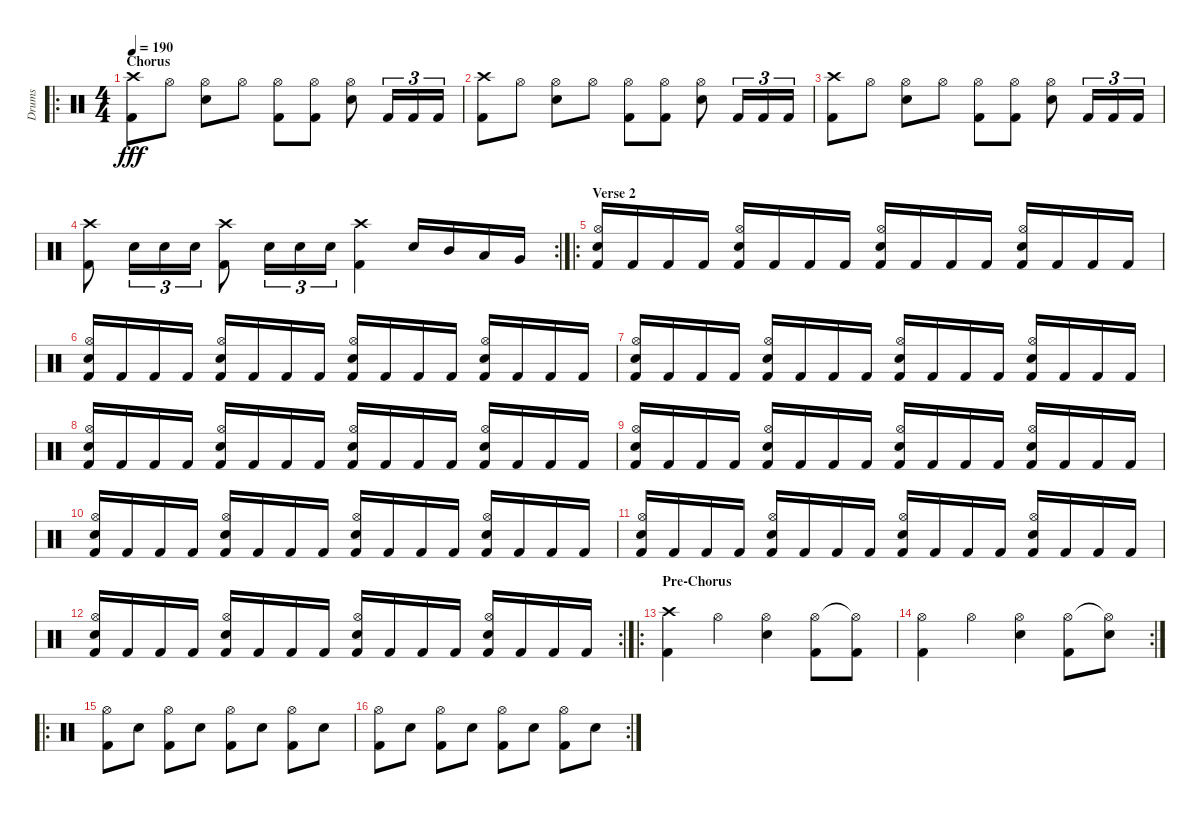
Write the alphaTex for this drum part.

\track ("Drums" "Drums") {instrument percussion}
\staff {score}
\articulation defaults
\ro
\ts (4 4)
\section ("" "Chorus")
\tempo 190
\clef neutral
\ks c
("Crash high (hit)" "Kick (hit) 2").8{dy fff} "Hi-Hat (open)".8 ("Hi-Hat (open)" "Electric Snare (hit)").8 "Hi-Hat (open)".8 ("Hi-Hat (open)" "Kick (hit) 2").8 ("Hi-Hat (open)" "Kick (hit) 2").8 ("Hi-Hat (open)" "Electric Snare (hit)").8 "Kick (hit) 2".16{tu (3 2)} "Kick (hit) 2".16{tu (3 2)} "Kick (hit) 2".16{tu (3 2)} |
("Crash high (hit)" "Kick (hit) 2").8 "Hi-Hat (open)".8 ("Hi-Hat (open)" "Electric Snare (hit)").8 "Hi-Hat (open)".8 ("Hi-Hat (open)" "Kick (hit) 2").8 ("Hi-Hat (open)" "Kick (hit) 2").8 ("Hi-Hat (open)" "Electric Snare (hit)").8 "Kick (hit) 2".16{tu (3 2)} "Kick (hit) 2".16{tu (3 2)} "Kick (hit) 2".16{tu (3 2)} |
("Crash high (hit)" "Kick (hit) 2").8 "Hi-Hat (open)".8 ("Hi-Hat (open)" "Electric Snare (hit)").8 "Hi-Hat (open)".8 ("Hi-Hat (open)" "Kick (hit) 2").8 ("Hi-Hat (open)" "Kick (hit) 2").8 ("Hi-Hat (open)" "Electric Snare (hit)").8 "Kick (hit) 2".16{tu (3 2)} "Kick (hit) 2".16{tu (3 2)} "Kick (hit) 2".16{tu (3 2)} |
\rc 2
("Crash high (hit)" "Kick (hit) 2").8 "Electric Snare (hit)".16{tu (3 2)} "Electric Snare (hit)".16{tu (3 2)} "Electric Snare (hit)".16{tu (3 2)} ("Crash high (hit)" "Kick (hit) 2").8 "Electric Snare (hit)".16{tu (3 2)} "Electric Snare (hit)".16{tu (3 2)} "Electric Snare (hit)".16{tu (3 2)} ("Crash high (hit)" "Kick (hit) 2").4 "Electric Snare (hit)".16 "Mid Tom (hit)".16 "Low Tom (hit)".16 "Very Low Tom (hit)".16 |
\ro
\section ("" "Verse 2")
("Kick (hit) 2" "Electric Snare (hit)" "Hi-Hat (open)").16 "Kick (hit) 2".16 "Kick (hit) 2".16 "Kick (hit) 2".16 ("Kick (hit) 2" "Electric Snare (hit)" "Hi-Hat (open)").16 "Kick (hit) 2".16 "Kick (hit) 2".16 "Kick (hit) 2".16 ("Kick (hit) 2" "Electric Snare (hit)" "Hi-Hat (open)").16 "Kick (hit) 2".16 "Kick (hit) 2".16 "Kick (hit) 2".16 ("Kick (hit) 2" "Electric Snare (hit)" "Hi-Hat (open)").16 "Kick (hit) 2".16 "Kick (hit) 2".16 "Kick (hit) 2".16 |
("Kick (hit) 2" "Electric Snare (hit)" "Hi-Hat (open)").16 "Kick (hit) 2".16 "Kick (hit) 2".16 "Kick (hit) 2".16 ("Kick (hit) 2" "Electric Snare (hit)" "Hi-Hat (open)").16 "Kick (hit) 2".16 "Kick (hit) 2".16 "Kick (hit) 2".16 ("Kick (hit) 2" "Electric Snare (hit)" "Hi-Hat (open)").16 "Kick (hit) 2".16 "Kick (hit) 2".16 "Kick (hit) 2".16 ("Kick (hit) 2" "Electric Snare (hit)" "Hi-Hat (open)").16 "Kick (hit) 2".16 "Kick (hit) 2".16 "Kick (hit) 2".16 |
("Kick (hit) 2" "Electric Snare (hit)" "Hi-Hat (open)").16 "Kick (hit) 2".16 "Kick (hit) 2".16 "Kick (hit) 2".16 ("Kick (hit) 2" "Electric Snare (hit)" "Hi-Hat (open)").16 "Kick (hit) 2".16 "Kick (hit) 2".16 "Kick (hit) 2".16 ("Kick (hit) 2" "Electric Snare (hit)" "Hi-Hat (open)").16 "Kick (hit) 2".16 "Kick (hit) 2".16 "Kick (hit) 2".16 ("Kick (hit) 2" "Electric Snare (hit)" "Hi-Hat (open)").16 "Kick (hit) 2".16 "Kick (hit) 2".16 "Kick (hit) 2".16 |
("Kick (hit) 2" "Electric Snare (hit)" "Hi-Hat (open)").16 "Kick (hit) 2".16 "Kick (hit) 2".16 "Kick (hit) 2".16 ("Kick (hit) 2" "Electric Snare (hit)" "Hi-Hat (open)").16 "Kick (hit) 2".16 "Kick (hit) 2".16 "Kick (hit) 2".16 ("Kick (hit) 2" "Electric Snare (hit)" "Hi-Hat (open)").16 "Kick (hit) 2".16 "Kick (hit) 2".16 "Kick (hit) 2".16 ("Kick (hit) 2" "Electric Snare (hit)" "Hi-Hat (open)").16 "Kick (hit) 2".16 "Kick (hit) 2".16 "Kick (hit) 2".16 |
("Kick (hit) 2" "Electric Snare (hit)" "Hi-Hat (open)").16 "Kick (hit) 2".16 "Kick (hit) 2".16 "Kick (hit) 2".16 ("Kick (hit) 2" "Electric Snare (hit)" "Hi-Hat (open)").16 "Kick (hit) 2".16 "Kick (hit) 2".16 "Kick (hit) 2".16 ("Kick (hit) 2" "Electric Snare (hit)" "Hi-Hat (open)").16 "Kick (hit) 2".16 "Kick (hit) 2".16 "Kick (hit) 2".16 ("Kick (hit) 2" "Electric Snare (hit)" "Hi-Hat (open)").16 "Kick (hit) 2".16 "Kick (hit) 2".16 "Kick (hit) 2".16 |
("Kick (hit) 2" "Electric Snare (hit)" "Hi-Hat (open)").16 "Kick (hit) 2".16 "Kick (hit) 2".16 "Kick (hit) 2".16 ("Kick (hit) 2" "Electric Snare (hit)" "Hi-Hat (open)").16 "Kick (hit) 2".16 "Kick (hit) 2".16 "Kick (hit) 2".16 ("Kick (hit) 2" "Electric Snare (hit)" "Hi-Hat (open)").16 "Kick (hit) 2".16 "Kick (hit) 2".16 "Kick (hit) 2".16 ("Kick (hit) 2" "Electric Snare (hit)" "Hi-Hat (open)").16 "Kick (hit) 2".16 "Kick (hit) 2".16 "Kick (hit) 2".16 |
("Kick (hit) 2" "Electric Snare (hit)" "Hi-Hat (open)").16 "Kick (hit) 2".16 "Kick (hit) 2".16 "Kick (hit) 2".16 ("Kick (hit) 2" "Electric Snare (hit)" "Hi-Hat (open)").16 "Kick (hit) 2".16 "Kick (hit) 2".16 "Kick (hit) 2".16 ("Kick (hit) 2" "Electric Snare (hit)" "Hi-Hat (open)").16 "Kick (hit) 2".16 "Kick (hit) 2".16 "Kick (hit) 2".16 ("Kick (hit) 2" "Electric Snare (hit)" "Hi-Hat (open)").16 "Kick (hit) 2".16 "Kick (hit) 2".16 "Kick (hit) 2".16 |
\rc 2
("Kick (hit) 2" "Electric Snare (hit)" "Hi-Hat (open)").16 "Kick (hit) 2".16 "Kick (hit) 2".16 "Kick (hit) 2".16 ("Kick (hit) 2" "Electric Snare (hit)" "Hi-Hat (open)").16 "Kick (hit) 2".16 "Kick (hit) 2".16 "Kick (hit) 2".16 ("Kick (hit) 2" "Electric Snare (hit)" "Hi-Hat (open)").16 "Kick (hit) 2".16 "Kick (hit) 2".16 "Kick (hit) 2".16 ("Kick (hit) 2" "Electric Snare (hit)" "Hi-Hat (open)").16 "Kick (hit) 2".16 "Kick (hit) 2".16 "Kick (hit) 2".16 |
\ro
\section ("" "Pre-Chorus")
("Crash high (hit)" "Kick (hit) 2").4 "Hi-Hat (open)".4 ("Hi-Hat (open)" "Electric Snare (hit)").4 ("Hi-Hat (open)" "Kick (hit) 2").8 ("Hi-Hat (open)"{t} "Kick (hit) 2").8 |
\rc 2
("Hi-Hat (open)" "Kick (hit) 2").4 "Hi-Hat (open)".4 ("Hi-Hat (open)" "Electric Snare (hit)").4 ("Hi-Hat (open)" "Kick (hit) 2").8 ("Hi-Hat (open)"{t} "Electric Snare (hit)").8 |
\ro
("Kick (hit) 2" "Hi-Hat (open)").8 "Electric Snare (hit)".8 ("Kick (hit) 2" "Hi-Hat (open)").8 "Electric Snare (hit)".8 ("Kick (hit) 2" "Hi-Hat (open)").8 "Electric Snare (hit)".8 ("Kick (hit) 2" "Hi-Hat (open)").8 "Electric Snare (hit)".8 |
\rc 2
("Kick (hit) 2" "Hi-Hat (open)").8 "Electric Snare (hit)".8 ("Kick (hit) 2" "Hi-Hat (open)").8 "Electric Snare (hit)".8 ("Kick (hit) 2" "Hi-Hat (open)").8 "Electric Snare (hit)".8 ("Kick (hit) 2" "Hi-Hat (open)").8 "Electric Snare (hit)".8
